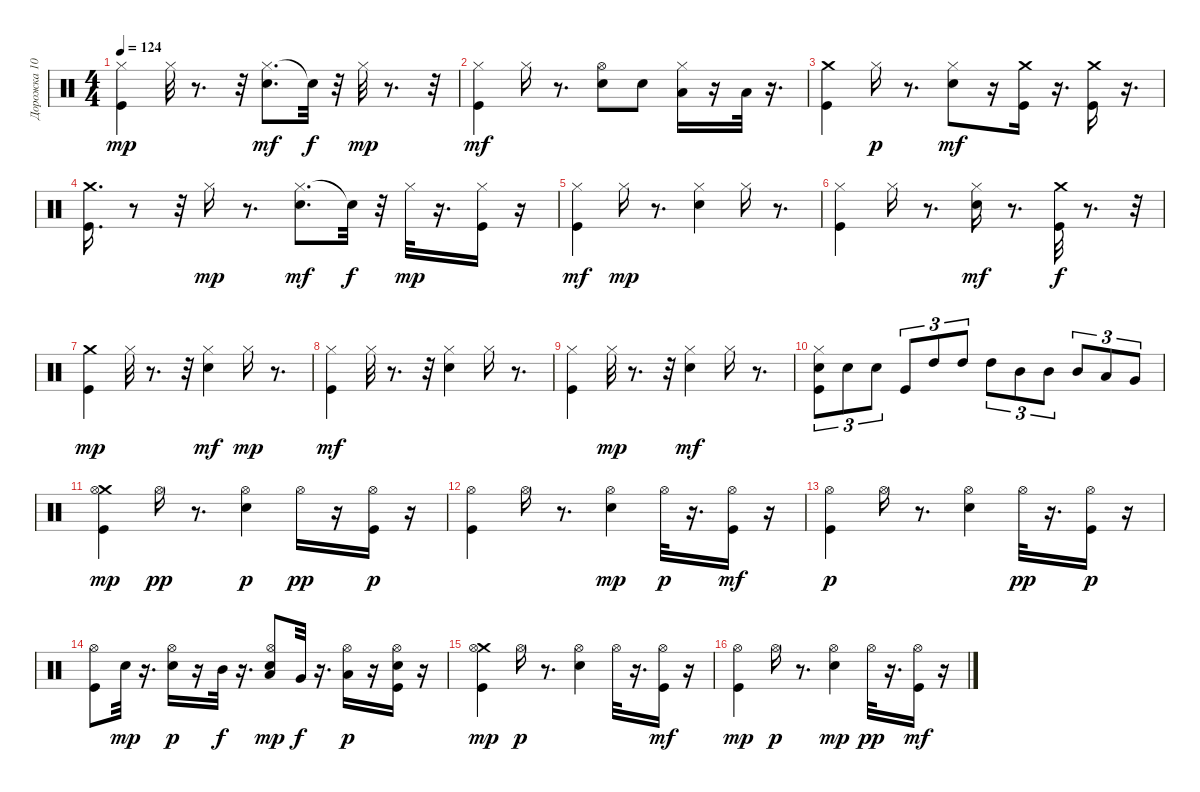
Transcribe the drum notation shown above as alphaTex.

\track ("Дорожка 10" "Дорожка 10") {instrument percussion}
\staff {score}
\articulation defaults
\ts (4 4)
\tempo 124
\clef neutral
\ks c
("Hi-Hat (closed)" "Kick (hit)").4{dy mp} "Hi-Hat (closed)".32 r.8{d} r.32 ("Hi-Hat (closed)" "Electric Snare (hit)").8{d dy mf} "Snare (hit)"{t}.32{dy f} r.32 "Hi-Hat (closed)".32{dy mp} r.8{d} r.32 |
("Kick (hit)" "Hi-Hat (closed)").4{dy mf} "Hi-Hat (closed)".16 r.8{d} ("Hi-Hat (open)" "Electric Snare (hit)").8 "Electric Snare (hit)".8 ("Hi-Hat (closed)" "Low Tom (hit)").16 r.16 "Low Tom (hit)".32 r.16{d} |
("Kick (hit)" "Crash medium (hit)").4 "Hi-Hat (closed)".16{dy p} r.8{d} ("Hi-Hat (closed)" "Electric Snare (hit)").8{dy mf} r.16 ("Crash medium (hit)" "Kick (hit)").16 r.16{d} ("Kick (hit)" "Crash medium (hit)").16 r.16{d} |
("Crash medium (hit)" "Kick (hit)").16{d} r.8 r.32 "Hi-Hat (closed)".16{dy mp} r.8{d} ("Hi-Hat (closed)" "Electric Snare (hit)").8{d dy mf} "Snare (hit)"{t}.32{dy f} r.32 "Hi-Hat (closed)".32{dy mp} r.16{d} ("Kick (hit)" "Hi-Hat (closed)").16 r.16 |
("Hi-Hat (closed)" "Kick (hit)").4{dy mf} "Hi-Hat (closed)".16{dy mp} r.8{d} ("Electric Snare (hit)" "Hi-Hat (closed)").4 "Hi-Hat (closed)".16 r.8{d} |
("Hi-Hat (closed)" "Kick (hit)").4 "Hi-Hat (closed)".16 r.8{d} ("Hi-Hat (closed)" "Electric Snare (hit)").16{dy mf} r.8{d} ("Crash medium (hit)" "Kick (hit)").32{dy f} r.8{d} r.32 |
("Kick (hit)" "Crash medium (hit)").4{dy mp} "Hi-Hat (closed)".32 r.8{d} r.32 ("Hi-Hat (closed)" "Electric Snare (hit)").4{dy mf} "Hi-Hat (closed)".16{dy mp} r.8{d} |
("Hi-Hat (closed)" "Kick (hit)").4{dy mf} "Hi-Hat (closed)".32 r.8{d} r.32 ("Electric Snare (hit)" "Hi-Hat (closed)").4 "Hi-Hat (closed)".16 r.8{d} |
("Hi-Hat (closed)" "Kick (hit)").4 "Hi-Hat (closed)".32{dy mp} r.8{d} r.32 ("Hi-Hat (closed)" "Electric Snare (hit)").4{dy mf} "Hi-Hat (closed)".16 r.8{d} |
("Electric Snare (hit)" "Hi-Hat (closed)" "Kick (hit)").8{tu (3 2)} "Electric Snare (hit)".8{tu (3 2)} "Electric Snare (hit)".8{tu (3 2)} "Kick (hit)".8{tu (3 2)} "High Tom (hit)".8{tu (3 2)} "High Tom (hit)".8{tu (3 2)} "High Tom (hit)".8{tu (3 2)} "Mid Tom (hit)".8{tu (3 2)} "Mid Tom (hit)".8{tu (3 2)} "Mid Tom (hit)".8{tu (3 2)} "Low Tom (hit)".8{tu (3 2)} "Very Low Tom (hit)".8{tu (3 2)} |
("Crash medium (hit)" "Kick (hit)" "Hi-Hat (open)").4{dy mp} "Hi-Hat (open)".16{dy pp} r.8{d} ("Electric Snare (hit)" "Hi-Hat (open)").4{dy p} "Hi-Hat (open)".16{dy pp} r.16 ("Kick (hit)" "Hi-Hat (open)").16{dy p} r.16 |
("Kick (hit)" "Hi-Hat (open)").4 "Hi-Hat (open)".16 r.8{d} ("Hi-Hat (open)" "Electric Snare (hit)").4{dy mp} "Hi-Hat (open)".32{dy p} r.16{d} ("Hi-Hat (open)" "Kick (hit)").16{dy mf} r.16 |
("Kick (hit)" "Hi-Hat (open)").4{dy p} "Hi-Hat (open)".16 r.8{d} ("Electric Snare (hit)" "Hi-Hat (open)").4 "Hi-Hat (open)".32{dy pp} r.16{d} ("Kick (hit)" "Hi-Hat (open)").16{dy p} r.16 |
("Kick (hit)" "Hi-Hat (open)").8 "Electric Snare (hit)".32{dy mp} r.16{d} ("Electric Snare (hit)" "Hi-Hat (open)").16{dy p} r.16 "Mid Tom (hit)".32{dy f} r.16{d} ("Low Tom (hit)" "Electric Snare (hit)" "Hi-Hat (open)").8{dy mp} "Very Low Tom (hit)".32{dy f} r.16{d} ("Low Floor Tom (hit)" "Hi-Hat (open)").16{dy p} r.16 ("Snare (hit) 2" "Kick (hit)" "Hi-Hat (open)").16 r.16 |
("Crash medium (hit)" "Kick (hit)" "Hi-Hat (open)").4{dy mp} "Hi-Hat (open)".16{dy p} r.8{d} ("Electric Snare (hit)" "Hi-Hat (open)").4 "Hi-Hat (open)".32 r.16{d} ("Hi-Hat (open)" "Kick (hit)").16{dy mf} r.16 |
("Kick (hit)" "Hi-Hat (open)").4{dy mp} "Hi-Hat (open)".16{dy p} r.8{d} ("Hi-Hat (open)" "Electric Snare (hit)").4{dy mp} "Hi-Hat (open)".32{dy pp} r.16{d} ("Hi-Hat (open)" "Kick (hit)").16{dy mf} r.16
